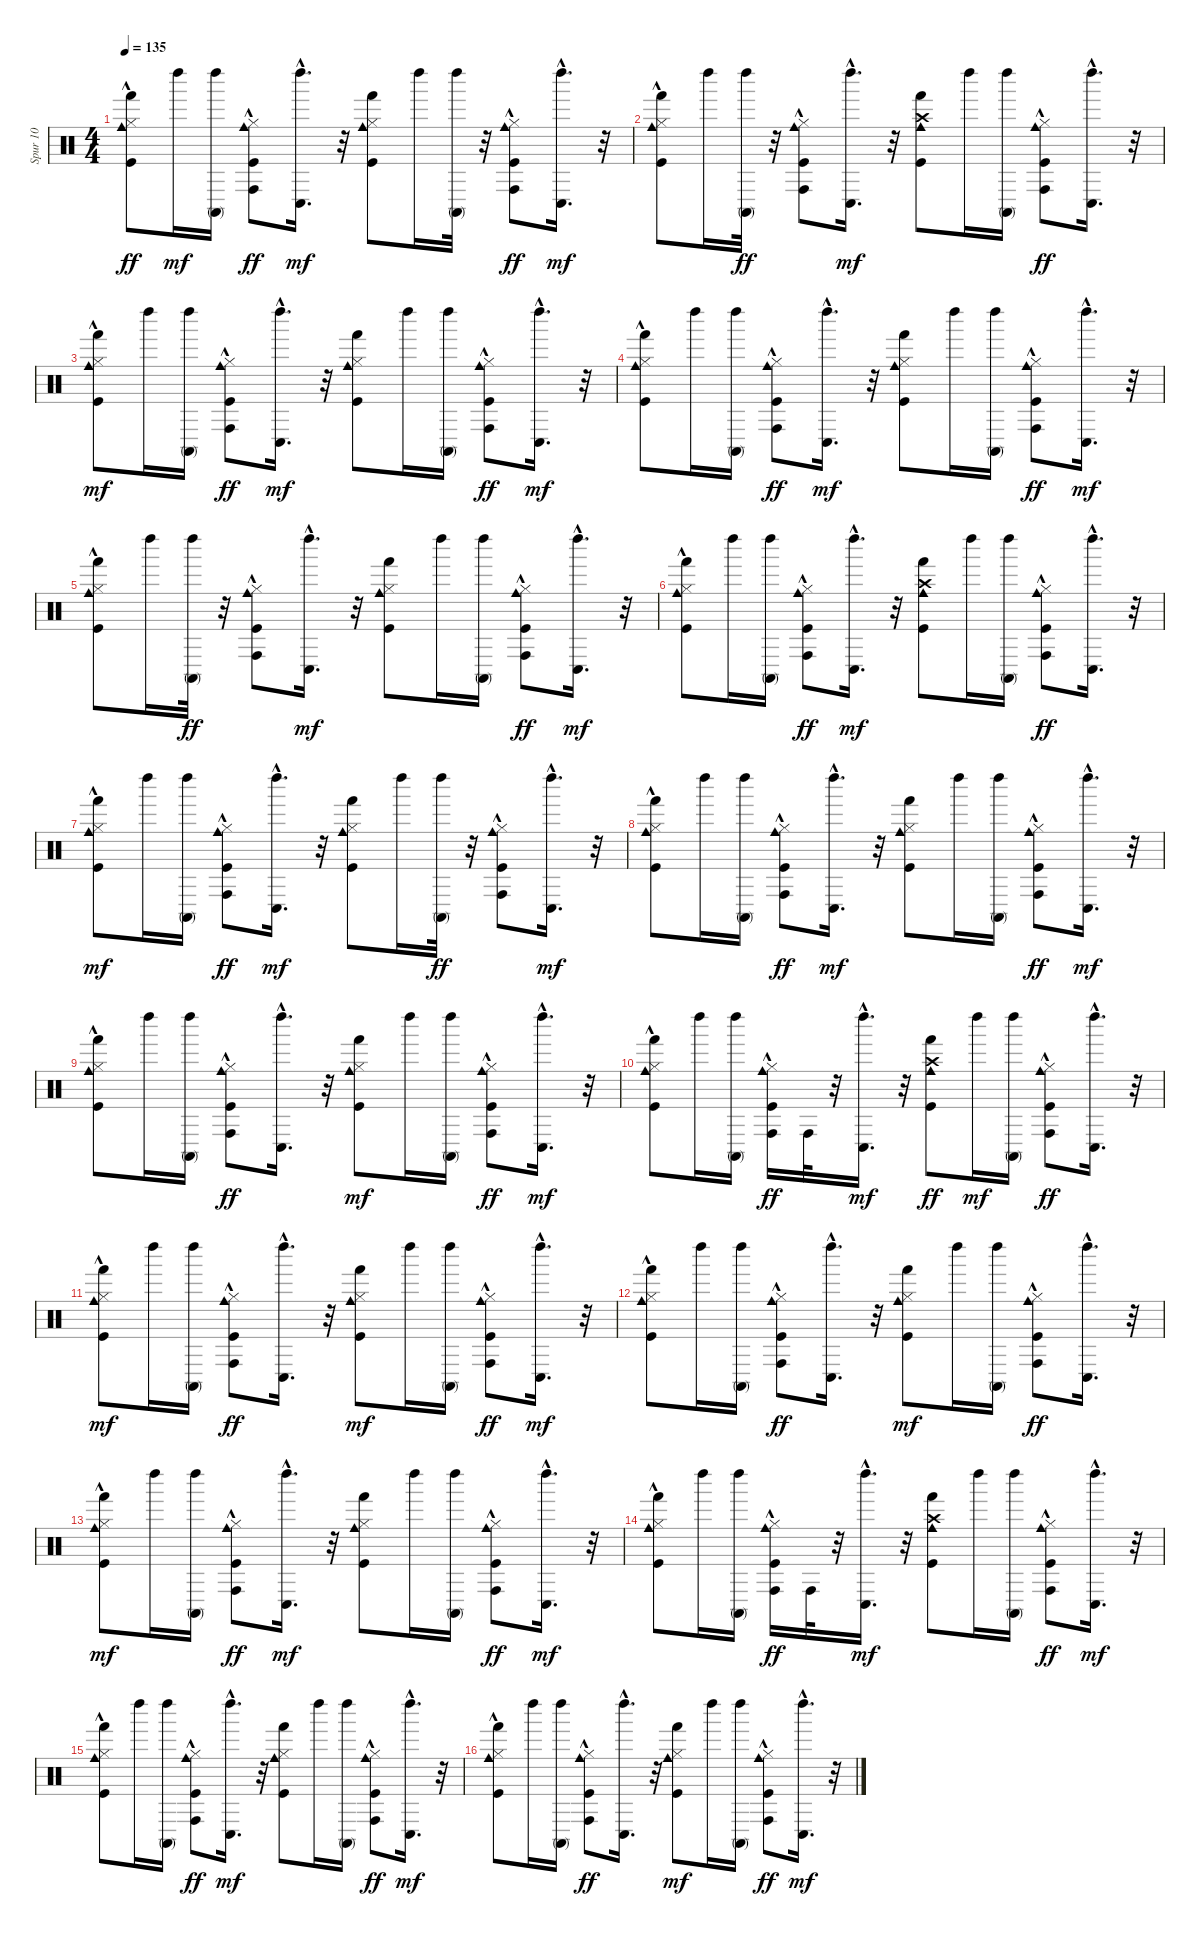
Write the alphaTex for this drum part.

\track ("Spur 10" "Spur 10") {instrument percussion}
\staff {score}
\articulation defaults
\ts (4 4)
\tempo 135
\clef neutral
\ks c
("Hi-Hat (closed)" "Cowbell medium (hit)" "Kick (hit)" "Hand (hit)"{hac}).8{dy ff} "Left Maraca (hit)".16{dy mf} ("Conga high (mute)" "Left Maraca (hit)").16 ("Hi-Hat (closed)" "Kick (hit)"{hac} "Cowbell medium (hit)" "Conga high (hit)"{hac}).8{dy ff} ("Conga low (hit)"{hac} "Left Maraca (hit)").16{d dy mf} r.32 ("Hi-Hat (closed)" "Kick (hit)" "Cowbell medium (hit)" "Hand (hit)").8 "Left Maraca (hit)".16 ("Conga high (mute)" "Left Maraca (hit)").32 r.32 ("Kick (hit)" "Hi-Hat (closed)" "Cowbell medium (hit)" "Conga high (hit)"{hac}).8{dy ff} ("Conga low (hit)"{hac} "Left Maraca (hit)").16{d dy mf} r.32 |
("Kick (hit)" "Hi-Hat (closed)" "Cowbell medium (hit)" "Hand (hit)"{hac}).8 "Left Maraca (hit)".16 ("Left Maraca (hit)" "Conga high (mute)").32{dy ff} r.32 ("Hi-Hat (closed)" "Kick (hit)"{hac} "Cowbell medium (hit)" "Conga high (hit)"{hac}).8 ("Conga low (hit)"{hac} "Left Maraca (hit)").16{d dy mf} r.32 ("Kick (hit)" "Crash high (hit)" "Cowbell medium (hit)" "Hand (hit)").8 "Left Maraca (hit)".16 ("Conga high (mute)" "Left Maraca (hit)").16 ("Hi-Hat (closed)" "Kick (hit)" "Cowbell medium (hit)" "Conga high (hit)"{hac}).8{dy ff} ("Left Maraca (hit)" "Conga low (hit)"{hac}).16{d} r.32 |
("Kick (hit)" "Hi-Hat (closed)" "Cowbell medium (hit)" "Hand (hit)"{hac}).8{dy mf} "Left Maraca (hit)".16 ("Conga high (mute)" "Left Maraca (hit)").16 ("Kick (hit)"{hac} "Hi-Hat (closed)" "Cowbell medium (hit)" "Conga high (hit)"{hac}).8{dy ff} ("Conga low (hit)"{hac} "Left Maraca (hit)").16{d dy mf} r.32 ("Hi-Hat (closed)" "Kick (hit)" "Cowbell medium (hit)" "Hand (hit)").8 "Left Maraca (hit)".16 ("Conga high (mute)" "Left Maraca (hit)").16 ("Hi-Hat (closed)" "Cowbell medium (hit)" "Kick (hit)" "Conga high (hit)"{hac}).8{dy ff} ("Conga low (hit)"{hac} "Left Maraca (hit)").16{d dy mf} r.32 |
("Kick (hit)" "Hi-Hat (closed)" "Cowbell medium (hit)" "Hand (hit)"{hac}).8 "Left Maraca (hit)".16 ("Conga high (mute)" "Left Maraca (hit)").16 ("Kick (hit)"{hac} "Hi-Hat (closed)" "Cowbell medium (hit)" "Conga high (hit)"{hac}).8{dy ff} ("Conga low (hit)"{hac} "Left Maraca (hit)").16{d dy mf} r.32 ("Hi-Hat (closed)" "Kick (hit)" "Cowbell medium (hit)" "Hand (hit)").8 "Left Maraca (hit)".16 ("Conga high (mute)" "Left Maraca (hit)").16 ("Hi-Hat (closed)" "Kick (hit)" "Cowbell medium (hit)" "Conga high (hit)"{hac}).8{dy ff} ("Conga low (hit)"{hac} "Left Maraca (hit)").16{d dy mf} r.32 |
("Kick (hit)" "Hi-Hat (closed)" "Cowbell medium (hit)" "Hand (hit)"{hac}).8 "Left Maraca (hit)".16 ("Left Maraca (hit)" "Conga high (mute)").32{dy ff} r.32 ("Hi-Hat (closed)" "Kick (hit)"{hac} "Cowbell medium (hit)" "Conga high (hit)"{hac}).8 ("Conga low (hit)"{hac} "Left Maraca (hit)").16{d dy mf} r.32 ("Hi-Hat (closed)" "Kick (hit)" "Cowbell medium (hit)" "Hand (hit)").8 "Left Maraca (hit)".16 ("Conga high (mute)" "Left Maraca (hit)").16 ("Kick (hit)" "Hi-Hat (closed)" "Cowbell medium (hit)" "Conga high (hit)"{hac}).8{dy ff} ("Conga low (hit)"{hac} "Left Maraca (hit)").16{d dy mf} r.32 |
("Hi-Hat (closed)" "Kick (hit)" "Cowbell medium (hit)" "Hand (hit)"{hac}).8 "Left Maraca (hit)".16 ("Conga high (mute)" "Left Maraca (hit)").16 ("Kick (hit)"{hac} "Hi-Hat (closed)" "Cowbell medium (hit)" "Conga high (hit)"{hac}).8{dy ff} ("Conga low (hit)"{hac} "Left Maraca (hit)").16{d dy mf} r.32 ("Crash high (hit)" "Kick (hit)" "Cowbell medium (hit)" "Hand (hit)").8 "Left Maraca (hit)".16 ("Conga high (mute)" "Left Maraca (hit)").16 ("Kick (hit)" "Hi-Hat (closed)" "Cowbell medium (hit)" "Conga high (hit)"{hac}).8{dy ff} ("Left Maraca (hit)" "Conga low (hit)"{hac}).16{d} r.32 |
("Kick (hit)" "Hi-Hat (closed)" "Cowbell medium (hit)" "Hand (hit)"{hac}).8{dy mf} "Left Maraca (hit)".16 ("Conga high (mute)" "Left Maraca (hit)").16 ("Hi-Hat (closed)" "Kick (hit)"{hac} "Cowbell medium (hit)" "Conga high (hit)"{hac}).8{dy ff} ("Conga low (hit)"{hac} "Left Maraca (hit)").16{d dy mf} r.32 ("Kick (hit)" "Hi-Hat (closed)" "Cowbell medium (hit)" "Hand (hit)").8 "Left Maraca (hit)".16 ("Left Maraca (hit)" "Conga high (mute)").32{dy ff} r.32 ("Kick (hit)" "Hi-Hat (closed)" "Cowbell medium (hit)" "Conga high (hit)"{hac}).8 ("Conga low (hit)"{hac} "Left Maraca (hit)").16{d dy mf} r.32 |
("Kick (hit)" "Hi-Hat (closed)" "Cowbell medium (hit)" "Hand (hit)"{hac}).8 "Left Maraca (hit)".16 ("Conga high (mute)" "Left Maraca (hit)").16 ("Kick (hit)"{hac} "Hi-Hat (closed)" "Cowbell medium (hit)" "Conga high (hit)"{hac}).8{dy ff} ("Conga low (hit)"{hac} "Left Maraca (hit)").16{d dy mf} r.32 ("Hi-Hat (closed)" "Kick (hit)" "Cowbell medium (hit)" "Hand (hit)").8 "Left Maraca (hit)".16 ("Conga high (mute)" "Left Maraca (hit)").16 ("Hi-Hat (closed)" "Kick (hit)" "Cowbell medium (hit)" "Conga high (hit)"{hac}).8{dy ff} ("Conga low (hit)"{hac} "Left Maraca (hit)").16{d dy mf} r.32 |
("Kick (hit)" "Hi-Hat (closed)" "Cowbell medium (hit)" "Hand (hit)"{hac}).8 "Left Maraca (hit)".16 ("Conga high (mute)" "Left Maraca (hit)").16 ("Hi-Hat (closed)" "Kick (hit)"{hac} "Cowbell medium (hit)" "Conga high (hit)"{hac}).8{dy ff} ("Left Maraca (hit)" "Conga low (hit)"{hac}).16{d} r.32 ("Hi-Hat (closed)" "Kick (hit)" "Cowbell medium (hit)" "Hand (hit)").8{dy mf} "Left Maraca (hit)".16 ("Conga high (mute)" "Left Maraca (hit)").16 ("Kick (hit)" "Hi-Hat (closed)" "Cowbell medium (hit)" "Conga high (hit)"{hac}).8{dy ff} ("Conga low (hit)"{hac} "Left Maraca (hit)").16{d dy mf} r.32 |
("Hi-Hat (closed)" "Kick (hit)" "Cowbell medium (hit)" "Hand (hit)"{hac}).8 "Left Maraca (hit)".16 ("Conga high (mute)" "Left Maraca (hit)").16 ("Hi-Hat (closed)" "Cowbell medium (hit)" "Kick (hit)"{hac} "Conga high (hit)").16{dy ff} "Conga high (hit)".32 r.32 ("Conga low (hit)"{hac} "Left Maraca (hit)").16{d dy mf} r.32 ("Crash high (hit)" "Cowbell medium (hit)" "Kick (hit)" "Hand (hit)").8{dy ff} "Left Maraca (hit)".16{dy mf} ("Conga high (mute)" "Left Maraca (hit)").16 ("Kick (hit)" "Hi-Hat (closed)" "Cowbell medium (hit)" "Conga high (hit)"{hac}).8{dy ff} ("Left Maraca (hit)" "Conga low (hit)"{hac}).16{d} r.32 |
("Hi-Hat (closed)" "Kick (hit)" "Cowbell medium (hit)" "Hand (hit)"{hac}).8{dy mf} "Left Maraca (hit)".16 ("Conga high (mute)" "Left Maraca (hit)").16 ("Hi-Hat (closed)" "Kick (hit)"{hac} "Cowbell medium (hit)" "Conga high (hit)"{hac}).8{dy ff} ("Left Maraca (hit)" "Conga low (hit)"{hac}).16{d} r.32 ("Kick (hit)" "Hi-Hat (closed)" "Cowbell medium (hit)" "Hand (hit)").8{dy mf} "Left Maraca (hit)".16 ("Conga high (mute)" "Left Maraca (hit)").16 ("Kick (hit)" "Hi-Hat (closed)" "Cowbell medium (hit)" "Conga high (hit)"{hac}).8{dy ff} ("Conga low (hit)"{hac} "Left Maraca (hit)").16{d dy mf} r.32 |
("Hi-Hat (closed)" "Kick (hit)" "Cowbell medium (hit)" "Hand (hit)"{hac}).8 "Left Maraca (hit)".16 ("Conga high (mute)" "Left Maraca (hit)").16 ("Kick (hit)"{hac} "Hi-Hat (closed)" "Cowbell medium (hit)" "Conga high (hit)"{hac}).8{dy ff} ("Left Maraca (hit)" "Conga low (hit)"{hac}).16{d} r.32 ("Kick (hit)" "Hi-Hat (closed)" "Cowbell medium (hit)" "Hand (hit)").8{dy mf} "Left Maraca (hit)".16 ("Conga high (mute)" "Left Maraca (hit)").16 ("Kick (hit)" "Hi-Hat (closed)" "Cowbell medium (hit)" "Conga high (hit)"{hac}).8{dy ff} ("Left Maraca (hit)" "Conga low (hit)"{hac}).16{d} r.32 |
("Hi-Hat (closed)" "Kick (hit)" "Cowbell medium (hit)" "Hand (hit)"{hac}).8{dy mf} "Left Maraca (hit)".16 ("Conga high (mute)" "Left Maraca (hit)").16 ("Kick (hit)"{hac} "Hi-Hat (closed)" "Cowbell medium (hit)" "Conga high (hit)"{hac}).8{dy ff} ("Conga low (hit)"{hac} "Left Maraca (hit)").16{d dy mf} r.32 ("Hi-Hat (closed)" "Kick (hit)" "Cowbell medium (hit)" "Hand (hit)").8 "Left Maraca (hit)".16 ("Conga high (mute)" "Left Maraca (hit)").16 ("Hi-Hat (closed)" "Kick (hit)" "Cowbell medium (hit)" "Conga high (hit)"{hac}).8{dy ff} ("Conga low (hit)"{hac} "Left Maraca (hit)").16{d dy mf} r.32 |
("Kick (hit)" "Hi-Hat (closed)" "Cowbell medium (hit)" "Hand (hit)"{hac}).8 "Left Maraca (hit)".16 ("Conga high (mute)" "Left Maraca (hit)").16 ("Kick (hit)"{hac} "Hi-Hat (closed)" "Cowbell medium (hit)" "Conga high (hit)").16{dy ff} "Conga high (hit)".32 r.32 ("Conga low (hit)"{hac} "Left Maraca (hit)").16{d dy mf} r.32 ("Kick (hit)" "Crash high (hit)" "Cowbell medium (hit)" "Hand (hit)").8 "Left Maraca (hit)".16 ("Conga high (mute)" "Left Maraca (hit)").16 ("Kick (hit)" "Hi-Hat (closed)" "Cowbell medium (hit)" "Conga high (hit)"{hac}).8{dy ff} ("Conga low (hit)"{hac} "Left Maraca (hit)").16{d dy mf} r.32 |
("Kick (hit)" "Hi-Hat (closed)" "Cowbell medium (hit)" "Hand (hit)"{hac}).8 "Left Maraca (hit)".16 ("Conga high (mute)" "Left Maraca (hit)").16 ("Hi-Hat (closed)" "Kick (hit)"{hac} "Cowbell medium (hit)" "Conga high (hit)"{hac}).8{dy ff} ("Conga low (hit)"{hac} "Left Maraca (hit)").16{d dy mf} r.32 ("Kick (hit)" "Hi-Hat (closed)" "Cowbell medium (hit)" "Hand (hit)").8 "Left Maraca (hit)".16 ("Conga high (mute)" "Left Maraca (hit)").16 ("Hi-Hat (closed)" "Kick (hit)" "Cowbell medium (hit)" "Conga high (hit)"{hac}).8{dy ff} ("Conga low (hit)"{hac} "Left Maraca (hit)").16{d dy mf} r.32 |
("Kick (hit)" "Hi-Hat (closed)" "Cowbell medium (hit)" "Hand (hit)"{hac}).8 "Left Maraca (hit)".16 ("Conga high (mute)" "Left Maraca (hit)").16 ("Kick (hit)"{hac} "Hi-Hat (closed)" "Cowbell medium (hit)" "Conga high (hit)"{hac}).8{dy ff} ("Left Maraca (hit)" "Conga low (hit)"{hac}).16{d} r.32 ("Hi-Hat (closed)" "Kick (hit)" "Cowbell medium (hit)" "Hand (hit)").8{dy mf} "Left Maraca (hit)".16 ("Conga high (mute)" "Left Maraca (hit)").16 ("Kick (hit)" "Hi-Hat (closed)" "Cowbell medium (hit)" "Conga high (hit)"{hac}).8{dy ff} ("Conga low (hit)"{hac} "Left Maraca (hit)").16{d dy mf} r.32
